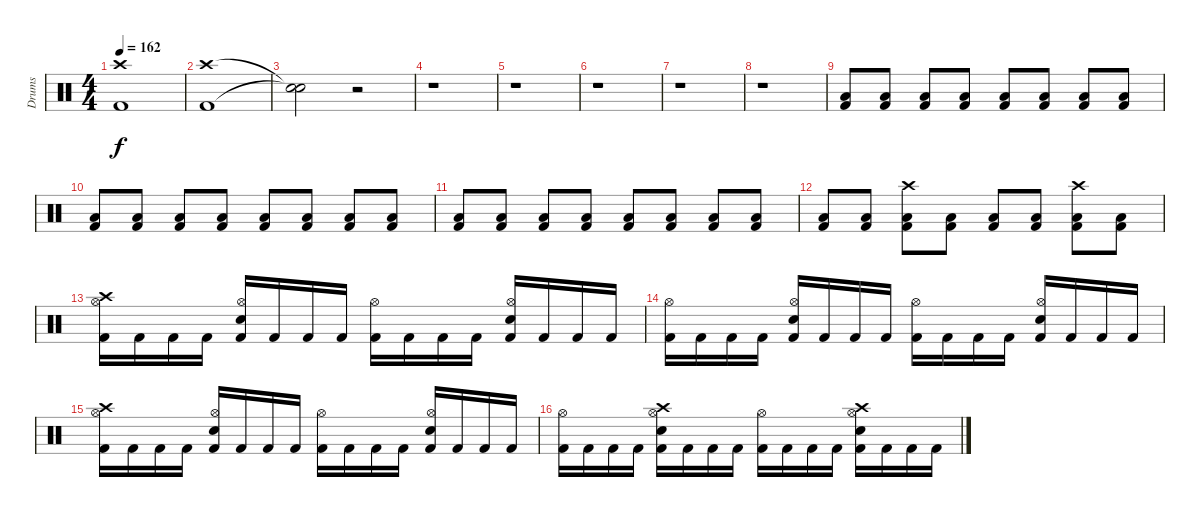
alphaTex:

\track ("Drums" "Drums") {instrument percussion}
\staff {score}
\articulation defaults
\ts (4 4)
\tempo 162
\clef neutral
\ks c
("Crash high (hit)" "Kick (hit) 2").1{dy f} |
("Crash high (hit)" "Kick (hit) 2").1 |
("Snare (hit)"{t} "Snare (hit)"{t}).2 r.2 |
r.1 |
r.1 |
r.1 |
r.1 |
r.1 |
("Low Tom (hit)" "Kick (hit) 2").8 ("Low Tom (hit)" "Kick (hit) 2").8 ("Low Tom (hit)" "Kick (hit) 2").8 ("Low Tom (hit)" "Kick (hit) 2").8 ("Low Tom (hit)" "Kick (hit) 2").8 ("Low Tom (hit)" "Kick (hit) 2").8 ("Low Tom (hit)" "Kick (hit) 2").8 ("Low Tom (hit)" "Kick (hit) 2").8 |
("Low Tom (hit)" "Kick (hit) 2").8 ("Low Tom (hit)" "Kick (hit) 2").8 ("Low Tom (hit)" "Kick (hit) 2").8 ("Low Tom (hit)" "Kick (hit) 2").8 ("Low Tom (hit)" "Kick (hit) 2").8 ("Low Tom (hit)" "Kick (hit) 2").8 ("Low Tom (hit)" "Kick (hit) 2").8 ("Low Tom (hit)" "Kick (hit) 2").8 |
("Low Tom (hit)" "Kick (hit) 2").8 ("Low Tom (hit)" "Kick (hit) 2").8 ("Low Tom (hit)" "Kick (hit) 2").8 ("Low Tom (hit)" "Kick (hit) 2").8 ("Low Tom (hit)" "Kick (hit) 2").8 ("Low Tom (hit)" "Kick (hit) 2").8 ("Low Tom (hit)" "Kick (hit) 2").8 ("Low Tom (hit)" "Kick (hit) 2").8 |
("Low Tom (hit)" "Kick (hit) 2").8 ("Low Tom (hit)" "Kick (hit) 2").8 ("Low Tom (hit)" "Kick (hit) 2" "Crash high (hit)").8 ("Low Tom (hit)" "Kick (hit) 2").8 ("Low Tom (hit)" "Kick (hit) 2").8 ("Low Tom (hit)" "Kick (hit) 2").8 ("Low Tom (hit)" "Kick (hit) 2" "Crash high (hit)").8 ("Low Tom (hit)" "Kick (hit) 2").8 |
("Hi-Hat (open)" "Kick (hit) 2" "Crash high (hit)").16 "Kick (hit) 2".16 "Kick (hit) 2".16 "Kick (hit) 2".16 ("Hi-Hat (open)" "Electric Snare (hit)" "Kick (hit) 2").16 "Kick (hit) 2".16 "Kick (hit) 2".16 "Kick (hit) 2".16 ("Hi-Hat (open)" "Kick (hit) 2").16 "Kick (hit) 2".16 "Kick (hit) 2".16 "Kick (hit) 2".16 ("Hi-Hat (open)" "Electric Snare (hit)" "Kick (hit) 2").16 "Kick (hit) 2".16 "Kick (hit) 2".16 "Kick (hit) 2".16 |
("Hi-Hat (open)" "Kick (hit) 2").16 "Kick (hit) 2".16 "Kick (hit) 2".16 "Kick (hit) 2".16 ("Hi-Hat (open)" "Electric Snare (hit)" "Kick (hit) 2").16 "Kick (hit) 2".16 "Kick (hit) 2".16 "Kick (hit) 2".16 ("Hi-Hat (open)" "Kick (hit) 2").16 "Kick (hit) 2".16 "Kick (hit) 2".16 "Kick (hit) 2".16 ("Hi-Hat (open)" "Electric Snare (hit)" "Kick (hit) 2").16 "Kick (hit) 2".16 "Kick (hit) 2".16 "Kick (hit) 2".16 |
("Hi-Hat (open)" "Kick (hit) 2" "Crash high (hit)").16 "Kick (hit) 2".16 "Kick (hit) 2".16 "Kick (hit) 2".16 ("Hi-Hat (open)" "Electric Snare (hit)" "Kick (hit) 2").16 "Kick (hit) 2".16 "Kick (hit) 2".16 "Kick (hit) 2".16 ("Hi-Hat (open)" "Kick (hit) 2").16 "Kick (hit) 2".16 "Kick (hit) 2".16 "Kick (hit) 2".16 ("Hi-Hat (open)" "Electric Snare (hit)" "Kick (hit) 2").16 "Kick (hit) 2".16 "Kick (hit) 2".16 "Kick (hit) 2".16 |
("Hi-Hat (open)" "Kick (hit) 2").16 "Kick (hit) 2".16 "Kick (hit) 2".16 "Kick (hit) 2".16 ("Crash high (hit)" "Hi-Hat (open)" "Electric Snare (hit)" "Kick (hit) 2").16 "Kick (hit) 2".16 "Kick (hit) 2".16 "Kick (hit) 2".16 ("Hi-Hat (open)" "Kick (hit) 2").16 "Kick (hit) 2".16 "Kick (hit) 2".16 "Kick (hit) 2".16 ("Crash high (hit)" "Hi-Hat (open)" "Electric Snare (hit)" "Kick (hit) 2").16 "Kick (hit) 2".16 "Kick (hit) 2".16 "Kick (hit) 2".16
